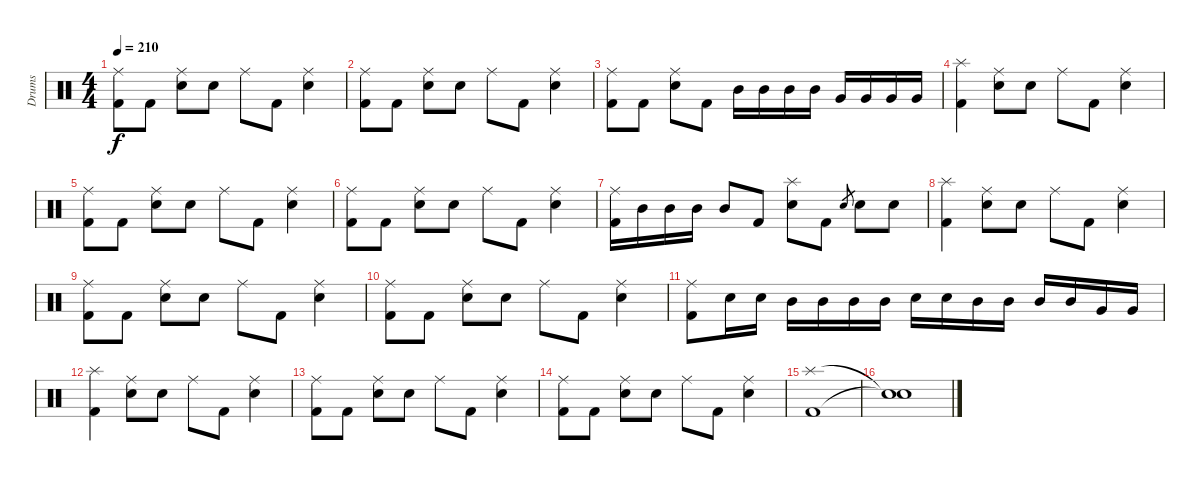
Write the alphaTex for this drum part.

\track ("Drums" "Drums") {instrument percussion}
\staff {score}
\articulation defaults
\ts (4 4)
\tempo 210
\clef neutral
\ks c
("Ride (middle)" "Kick (hit) 2").8{dy f} "Kick (hit) 2".8 ("Ride (middle)" "Electric Snare (hit)").8 "Electric Snare (hit)".8 "Ride (middle)".8 "Kick (hit) 2".8 ("Ride (middle)" "Electric Snare (hit)").4 |
("Ride (middle)" "Kick (hit) 2").8 "Kick (hit) 2".8 ("Ride (middle)" "Electric Snare (hit)").8 "Electric Snare (hit)".8 "Ride (middle)".8 "Kick (hit) 2".8 ("Ride (middle)" "Electric Snare (hit)").4 |
("Ride (middle)" "Kick (hit) 2").8 "Kick (hit) 2".8 ("Ride (middle)" "Electric Snare (hit)").8 "Kick (hit) 2".8 "Mid Tom (hit)".16 "Mid Tom (hit)".16 "Mid Tom (hit)".16 "Mid Tom (hit)".16 "Very Low Tom (hit)".16 "Very Low Tom (hit)".16 "Very Low Tom (hit)".16 "Very Low Tom (hit)".16 |
("Splash (hit)" "Kick (hit) 2").4 ("Ride (middle)" "Electric Snare (hit)").8 "Electric Snare (hit)".8 "Ride (middle)".8 "Kick (hit) 2".8 ("Ride (middle)" "Electric Snare (hit)").4 |
("Ride (middle)" "Kick (hit) 2").8 "Kick (hit) 2".8 ("Ride (middle)" "Electric Snare (hit)").8 "Electric Snare (hit)".8 "Ride (middle)".8 "Kick (hit) 2".8 ("Ride (middle)" "Electric Snare (hit)").4 |
("Ride (middle)" "Kick (hit) 2").8 "Kick (hit) 2".8 ("Ride (middle)" "Electric Snare (hit)").8 "Electric Snare (hit)".8 "Ride (middle)".8 "Kick (hit) 2".8 ("Ride (middle)" "Electric Snare (hit)").4 |
("Ride (middle)" "Kick (hit) 2").16 "Mid Tom (hit)".16 "Mid Tom (hit)".16 "Mid Tom (hit)".16 "Mid Tom (hit)".8 "Kick (hit) 2".8 ("Splash (hit)" "Electric Snare (hit)").8 "Kick (hit) 2".8 "Electric Snare (hit)".8{gr} "Electric Snare (hit)".8 "Electric Snare (hit)".8 |
("Splash (hit)" "Kick (hit) 2").4 ("Ride (middle)" "Electric Snare (hit)").8 "Electric Snare (hit)".8 "Ride (middle)".8 "Kick (hit) 2".8 ("Ride (middle)" "Electric Snare (hit)").4 |
("Ride (middle)" "Kick (hit) 2").8 "Kick (hit) 2".8 ("Ride (middle)" "Electric Snare (hit)").8 "Electric Snare (hit)".8 "Ride (middle)".8 "Kick (hit) 2".8 ("Ride (middle)" "Electric Snare (hit)").4 |
("Ride (middle)" "Kick (hit) 2").8 "Kick (hit) 2".8 ("Ride (middle)" "Electric Snare (hit)").8 "Electric Snare (hit)".8 "Ride (middle)".8 "Kick (hit) 2".8 ("Ride (middle)" "Electric Snare (hit)").4 |
("Ride (middle)" "Kick (hit) 2").8 "Electric Snare (hit)".16 "Electric Snare (hit)".16 "Mid Tom (hit)".16 "Mid Tom (hit)".16 "Mid Tom (hit)".16 "Mid Tom (hit)".16 "Electric Snare (hit)".16 "Electric Snare (hit)".16 "Mid Tom (hit)".16 "Mid Tom (hit)".16 "Mid Tom (hit)".16 "Mid Tom (hit)".16 "Very Low Tom (hit)".16 "Very Low Tom (hit)".16 |
("Splash (hit)" "Kick (hit) 2").4 ("Ride (middle)" "Electric Snare (hit)").8 "Electric Snare (hit)".8 "Ride (middle)".8 "Kick (hit) 2".8 ("Ride (middle)" "Electric Snare (hit)").4 |
("Ride (middle)" "Kick (hit) 2").8 "Kick (hit) 2".8 ("Ride (middle)" "Electric Snare (hit)").8 "Electric Snare (hit)".8 "Ride (middle)".8 "Kick (hit) 2".8 ("Ride (middle)" "Electric Snare (hit)").4 |
("Ride (middle)" "Kick (hit) 2").8 "Kick (hit) 2".8 ("Ride (middle)" "Electric Snare (hit)").8 "Electric Snare (hit)".8 "Ride (middle)".8 "Kick (hit) 2".8 ("Ride (middle)" "Electric Snare (hit)").4 |
("Splash (hit)" "Kick (hit) 2").1 |
("Snare (hit)"{t} "Snare (hit)"{t}).1
